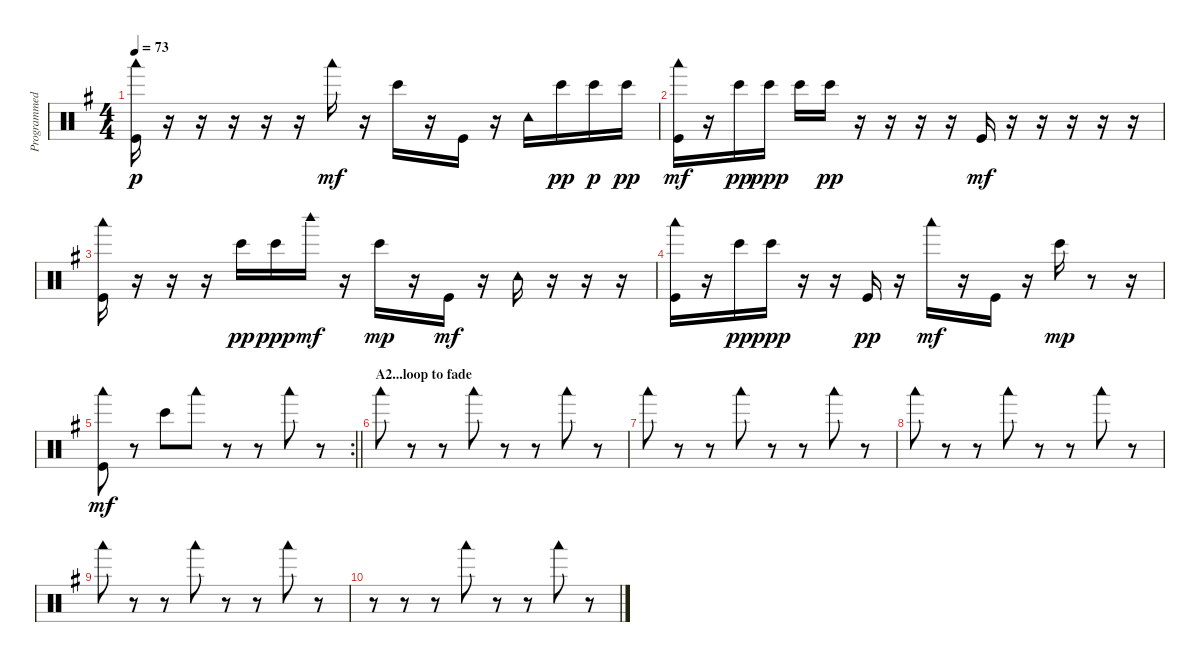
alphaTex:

\track ("Programmed Drums" "Programmed") {instrument percussion}
\staff {score}
\articulation defaults
\ts (4 4)
\tempo 73
\clef neutral
\ks g
("Woodblock low (hit)" "Kick (hit)").16{dy p} r.16 r.16 r.16 r.16 r.16 "Woodblock low (hit)".16{dy mf} r.16 "Bongo High (hit)".16 r.16 "Kick (hit)".16 r.16 "Tambourine (hit)".16 "Bongo High (hit)".16{dy pp} "Bongo High (hit)".16{dy p} "Bongo High (hit)".16{dy pp} |
("Woodblock low (hit)" "Kick (hit)").16{dy mf} r.16 "Bongo High (hit)".16{dy pp} "Bongo High (hit)".16{dy ppp} "Bongo High (hit)".16 "Bongo High (hit)".16{dy pp} r.16 r.16 r.16 r.16 "Kick (hit)".16{dy mf} r.16 r.16 r.16 r.16 r.16 |
("Woodblock low (hit)" "Kick (hit)").16 r.16 r.16 r.16 "Bongo High (hit)".16{dy pp} "Bongo High (hit)".16{dy ppp} "Woodblock high (hit)".16{dy mf} r.16 "Bongo High (hit)".16{dy mp} r.16 "Kick (hit)".16{dy mf} r.16 "Tambourine (hit)".16 r.16 r.16 r.16 |
("Woodblock low (hit)" "Kick (hit)").16 r.16 "Bongo High (hit)".16{dy pp} "Bongo High (hit)".16{dy ppp} r.16 r.16 "Kick (hit)".16{dy pp} r.16 "Woodblock low (hit)".16{dy mf} r.16 "Kick (hit)".16 r.16 "Bongo High (hit)".16{dy mp} r.8 r.16 |
\rc 2
\barLineRight lightlight
("Woodblock low (hit)" "Kick (hit)").8{dy mf} r.8 "Bongo High (hit)".8 "Woodblock low (hit)".8 r.8 r.8 "Woodblock low (hit)".8 r.8 |
\section ("" "A2...loop to fade")
"Woodblock low (hit)".8 r.8 r.8 "Woodblock low (hit)".8 r.8 r.8 "Woodblock low (hit)".8 r.8 |
"Woodblock low (hit)".8 r.8 r.8 "Woodblock low (hit)".8 r.8 r.8 "Woodblock low (hit)".8 r.8 |
"Woodblock low (hit)".8 r.8 r.8 "Woodblock low (hit)".8 r.8 r.8 "Woodblock low (hit)".8 r.8 |
"Woodblock low (hit)".8 r.8 r.8 "Woodblock low (hit)".8 r.8 r.8 "Woodblock low (hit)".8 r.8 |
r.8 r.8 r.8 "Woodblock low (hit)".8 r.8 r.8 "Woodblock low (hit)".8 r.8
